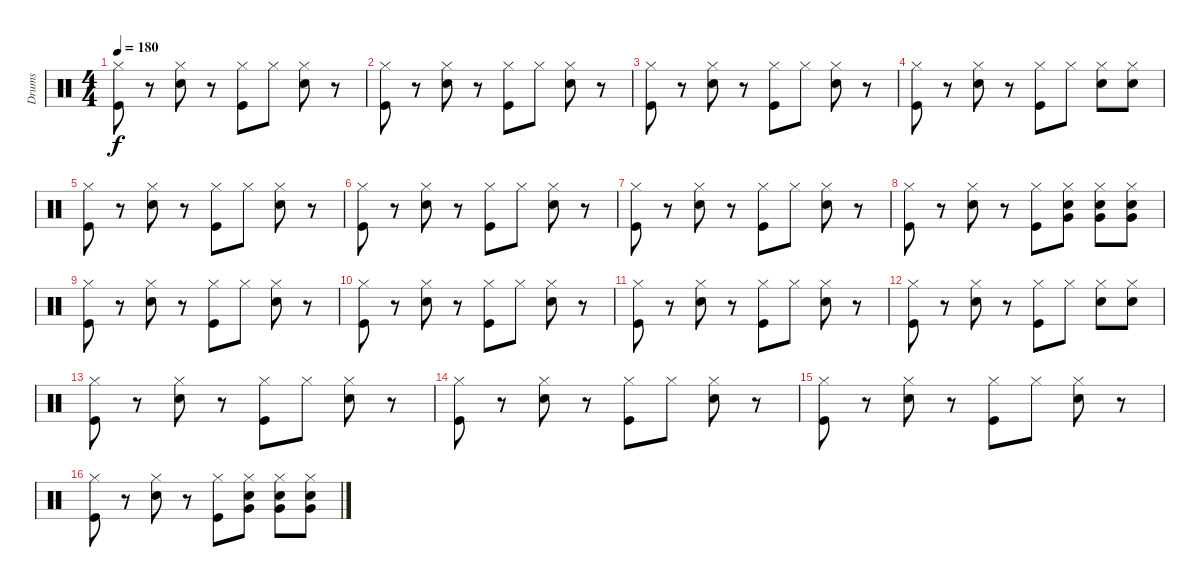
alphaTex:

\track ("Drums" "Drums") {instrument percussion}
\staff {score}
\articulation defaults
\ts (4 4)
\tempo 180
\clef neutral
\ks c
("Hi-Hat (closed)" "Kick (hit)").8{dy f} r.8 ("Hi-Hat (closed)" "Snare (hit) 2").8 r.8 ("Hi-Hat (closed)" "Kick (hit)").8 "Hi-Hat (closed)".8 ("Hi-Hat (closed)" "Snare (hit) 2").8 r.8 |
("Hi-Hat (closed)" "Kick (hit)").8 r.8 ("Hi-Hat (closed)" "Snare (hit) 2").8 r.8 ("Hi-Hat (closed)" "Kick (hit)").8 "Hi-Hat (closed)".8 ("Hi-Hat (closed)" "Snare (hit) 2").8 r.8 |
("Hi-Hat (closed)" "Kick (hit)").8 r.8 ("Hi-Hat (closed)" "Snare (hit) 2").8 r.8 ("Hi-Hat (closed)" "Kick (hit)").8 "Hi-Hat (closed)".8 ("Hi-Hat (closed)" "Snare (hit) 2").8 r.8 |
("Hi-Hat (closed)" "Kick (hit)").8 r.8 ("Hi-Hat (closed)" "Snare (hit) 2").8 r.8 ("Hi-Hat (closed)" "Kick (hit)").8 "Hi-Hat (closed)".8 ("Hi-Hat (closed)" "Snare (hit) 2").8 ("Hi-Hat (closed)" "Snare (hit) 2").8 |
("Hi-Hat (closed)" "Kick (hit)").8 r.8 ("Hi-Hat (closed)" "Snare (hit) 2").8 r.8 ("Hi-Hat (closed)" "Kick (hit)").8 "Hi-Hat (closed)".8 ("Hi-Hat (closed)" "Snare (hit) 2").8 r.8 |
("Hi-Hat (closed)" "Kick (hit)").8 r.8 ("Hi-Hat (closed)" "Snare (hit) 2").8 r.8 ("Hi-Hat (closed)" "Kick (hit)").8 "Hi-Hat (closed)".8 ("Hi-Hat (closed)" "Snare (hit) 2").8 r.8 |
("Hi-Hat (closed)" "Kick (hit)").8 r.8 ("Hi-Hat (closed)" "Snare (hit) 2").8 r.8 ("Hi-Hat (closed)" "Kick (hit)").8 "Hi-Hat (closed)".8 ("Hi-Hat (closed)" "Snare (hit) 2").8 r.8 |
("Hi-Hat (closed)" "Kick (hit)").8 r.8 ("Hi-Hat (closed)" "Snare (hit) 2").8 r.8 ("Hi-Hat (closed)" "Kick (hit)").8 ("Hi-Hat (closed)" "Snare (hit) 2" "Very Low Tom (hit)").8 ("Hi-Hat (closed)" "Snare (hit) 2" "Very Low Tom (hit)").8 ("Hi-Hat (closed)" "Snare (hit) 2" "Very Low Tom (hit)").8 |
("Hi-Hat (closed)" "Kick (hit)").8 r.8 ("Hi-Hat (closed)" "Snare (hit) 2").8 r.8 ("Hi-Hat (closed)" "Kick (hit)").8 "Hi-Hat (closed)".8 ("Hi-Hat (closed)" "Snare (hit) 2").8 r.8 |
("Hi-Hat (closed)" "Kick (hit)").8 r.8 ("Hi-Hat (closed)" "Snare (hit) 2").8 r.8 ("Hi-Hat (closed)" "Kick (hit)").8 "Hi-Hat (closed)".8 ("Hi-Hat (closed)" "Snare (hit) 2").8 r.8 |
("Hi-Hat (closed)" "Kick (hit)").8 r.8 ("Hi-Hat (closed)" "Snare (hit) 2").8 r.8 ("Hi-Hat (closed)" "Kick (hit)").8 "Hi-Hat (closed)".8 ("Hi-Hat (closed)" "Snare (hit) 2").8 r.8 |
("Hi-Hat (closed)" "Kick (hit)").8 r.8 ("Hi-Hat (closed)" "Snare (hit) 2").8 r.8 ("Hi-Hat (closed)" "Kick (hit)").8 "Hi-Hat (closed)".8 ("Hi-Hat (closed)" "Snare (hit) 2").8 ("Hi-Hat (closed)" "Snare (hit) 2").8 |
("Hi-Hat (closed)" "Kick (hit)").8 r.8 ("Hi-Hat (closed)" "Snare (hit) 2").8 r.8 ("Hi-Hat (closed)" "Kick (hit)").8 "Hi-Hat (closed)".8 ("Hi-Hat (closed)" "Snare (hit) 2").8 r.8 |
("Hi-Hat (closed)" "Kick (hit)").8 r.8 ("Hi-Hat (closed)" "Snare (hit) 2").8 r.8 ("Hi-Hat (closed)" "Kick (hit)").8 "Hi-Hat (closed)".8 ("Hi-Hat (closed)" "Snare (hit) 2").8 r.8 |
("Hi-Hat (closed)" "Kick (hit)").8 r.8 ("Hi-Hat (closed)" "Snare (hit) 2").8 r.8 ("Hi-Hat (closed)" "Kick (hit)").8 "Hi-Hat (closed)".8 ("Hi-Hat (closed)" "Snare (hit) 2").8 r.8 |
("Hi-Hat (closed)" "Kick (hit)").8 r.8 ("Hi-Hat (closed)" "Snare (hit) 2").8 r.8 ("Hi-Hat (closed)" "Kick (hit)").8 ("Hi-Hat (closed)" "Snare (hit) 2" "Very Low Tom (hit)").8 ("Hi-Hat (closed)" "Snare (hit) 2" "Very Low Tom (hit)").8 ("Hi-Hat (closed)" "Snare (hit) 2" "Very Low Tom (hit)").8
